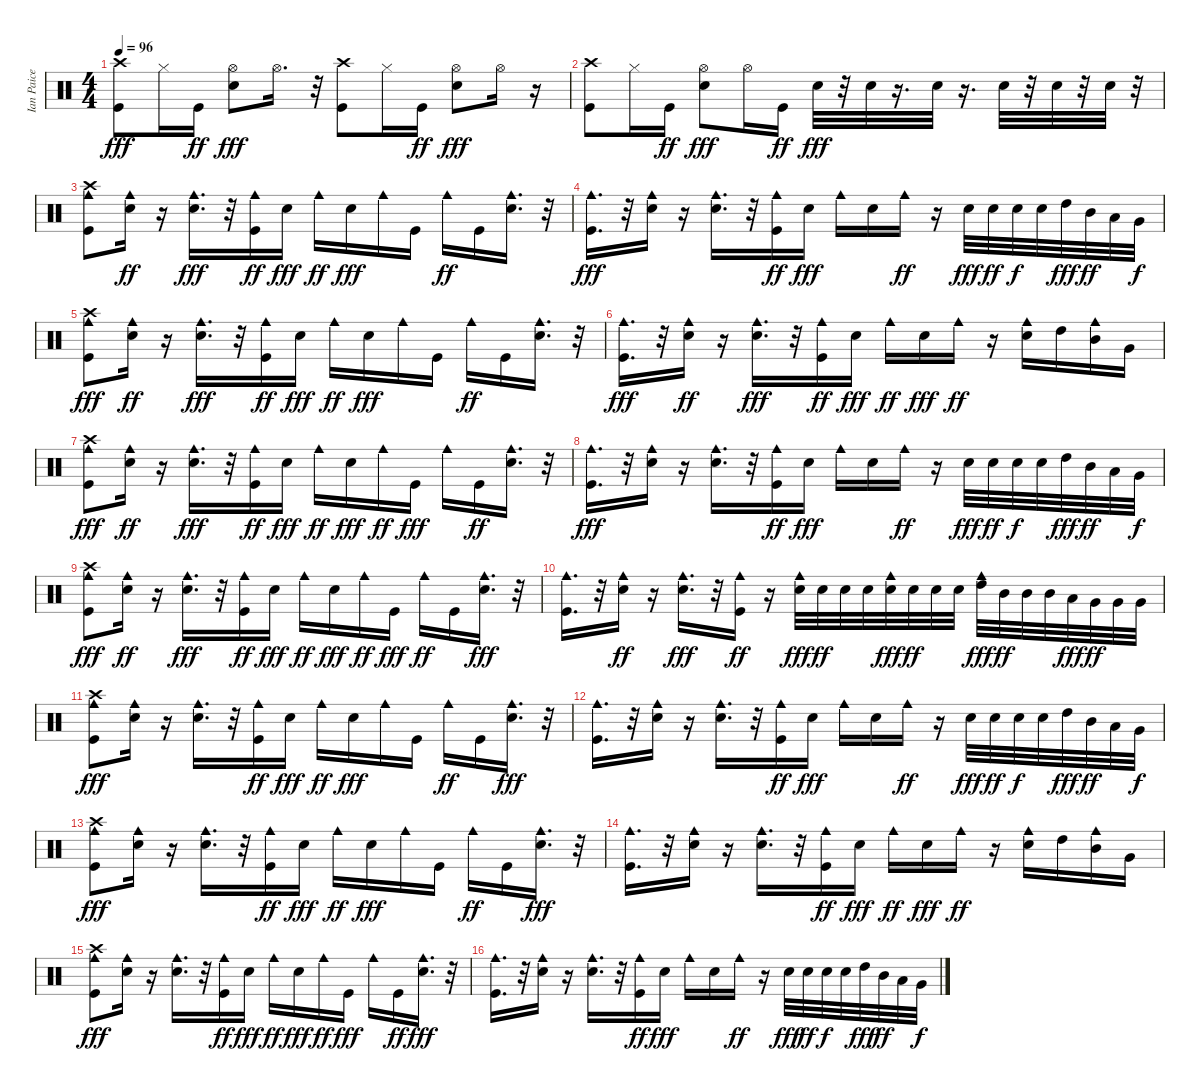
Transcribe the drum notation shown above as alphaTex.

\track ("Ian Paice" "Ian Paice") {instrument percussion}
\staff {score}
\articulation defaults
\ts (4 4)
\tempo 96
\clef neutral
\ks c
("Kick (hit)" "Crash high (hit)").8{dy fff} "Hi-Hat (closed)".16 "Kick (hit)".16{dy ff} ("Snare (hit) 2" "Hi-Hat (open)").8{dy fff} "Hi-Hat (open)".16{d} r.32 ("Kick (hit)" "Crash high (hit)").8 "Hi-Hat (closed)".16 "Kick (hit)".16{dy ff} ("Snare (hit) 2" "Hi-Hat (open)").8{dy fff} "Hi-Hat (open)".16 r.16 |
("Crash high (hit)" "Kick (hit)").8 "Hi-Hat (closed)".16 "Kick (hit)".16{dy ff} ("Hi-Hat (open)" "Snare (hit) 2").8{dy fff} "Hi-Hat (open)".16 "Kick (hit)".16{dy ff} "Snare (hit) 2".32{dy fff} r.32 "Snare (hit) 2".32 r.16{d} "Snare (hit) 2".32 r.16{d} "Snare (hit) 2".32 r.32 "Snare (hit) 2".32 r.32 "Snare (hit) 2".32 r.32 |
("Cowbell medium (hit)" "Kick (hit)" "Crash high (hit)").8 ("Snare (hit) 2" "Cowbell medium (hit)").16{dy ff} r.16 ("Cowbell medium (hit)" "Snare (hit) 2").16{d dy fff} r.32 ("Kick (hit)" "Cowbell medium (hit)").16{dy ff} "Snare (hit) 2".16{dy fff} "Cowbell medium (hit)".16{dy ff} "Snare (hit) 2".16{dy fff} "Cowbell medium (hit)".16 "Kick (hit)".16 "Cowbell medium (hit)".16{dy ff} "Kick (hit)".16 ("Snare (hit) 2" "Cowbell medium (hit)").16{d} r.32 |
("Cowbell medium (hit)" "Kick (hit)").16{d dy fff} r.32 ("Snare (hit) 2" "Cowbell medium (hit)").16 r.16 ("Cowbell medium (hit)" "Snare (hit) 2").16{d} r.32 ("Kick (hit)" "Cowbell medium (hit)").16{dy ff} "Snare (hit) 2".16{dy fff} "Cowbell medium (hit)".16 "Snare (hit) 2".16 "Cowbell medium (hit)".16{dy ff} r.16 "Snare (hit) 2".32{dy fff} "Snare (hit) 2".32{dy ff} "Snare (hit) 2".32{dy f} "Snare (hit) 2".32 "High Tom (hit)".32{dy fff} "Mid Tom (hit)".32{dy ff} "Low Tom (hit)".32 "Very Low Tom (hit)".32{dy f} |
("Cowbell medium (hit)" "Kick (hit)" "Crash high (hit)").8{dy fff} ("Snare (hit) 2" "Cowbell medium (hit)").16{dy ff} r.16 ("Cowbell medium (hit)" "Snare (hit) 2").16{d dy fff} r.32 ("Kick (hit)" "Cowbell medium (hit)").16{dy ff} "Snare (hit) 2".16{dy fff} "Cowbell medium (hit)".16{dy ff} "Snare (hit) 2".16{dy fff} "Cowbell medium (hit)".16 "Kick (hit)".16 "Cowbell medium (hit)".16{dy ff} "Kick (hit)".16 ("Snare (hit) 2" "Cowbell medium (hit)").16{d} r.32 |
("Cowbell medium (hit)" "Kick (hit)").16{d dy fff} r.32 ("Snare (hit) 2" "Cowbell medium (hit)").16{dy ff} r.16 ("Cowbell medium (hit)" "Snare (hit) 2").16{d dy fff} r.32 ("Kick (hit)" "Cowbell medium (hit)").16{dy ff} "Snare (hit) 2".16{dy fff} "Cowbell medium (hit)".16{dy ff} "Snare (hit) 2".16{dy fff} "Cowbell medium (hit)".16{dy ff} r.16 ("Cowbell medium (hit)" "Snare (hit) 2").16 "High Tom (hit)".16 ("Cowbell medium (hit)" "Mid Tom (hit)").16 "Very Low Tom (hit)".16 |
("Cowbell medium (hit)" "Kick (hit)" "Crash high (hit)").8{dy fff} ("Snare (hit) 2" "Cowbell medium (hit)").16{dy ff} r.16 ("Cowbell medium (hit)" "Snare (hit) 2").16{d dy fff} r.32 ("Kick (hit)" "Cowbell medium (hit)").16{dy ff} "Snare (hit) 2".16{dy fff} "Cowbell medium (hit)".16{dy ff} "Snare (hit) 2".16{dy fff} "Cowbell medium (hit)".16{dy ff} "Kick (hit)".16{dy fff} "Cowbell medium (hit)".16 "Kick (hit)".16{dy ff} ("Snare (hit) 2" "Cowbell medium (hit)").16{d} r.32 |
("Cowbell medium (hit)" "Kick (hit)").16{d dy fff} r.32 ("Snare (hit) 2" "Cowbell medium (hit)").16 r.16 ("Cowbell medium (hit)" "Snare (hit) 2").16{d} r.32 ("Kick (hit)" "Cowbell medium (hit)").16{dy ff} "Snare (hit) 2".16{dy fff} "Cowbell medium (hit)".16 "Snare (hit) 2".16 "Cowbell medium (hit)".16{dy ff} r.16 "Snare (hit) 2".32{dy fff} "Snare (hit) 2".32{dy ff} "Snare (hit) 2".32{dy f} "Snare (hit) 2".32 "High Tom (hit)".32{dy fff} "Mid Tom (hit)".32{dy ff} "Low Tom (hit)".32 "Very Low Tom (hit)".32{dy f} |
("Cowbell medium (hit)" "Kick (hit)" "Crash high (hit)").8{dy fff} ("Snare (hit) 2" "Cowbell medium (hit)").16{dy ff} r.16 ("Cowbell medium (hit)" "Snare (hit) 2").16{d dy fff} r.32 ("Kick (hit)" "Cowbell medium (hit)").16{dy ff} "Snare (hit) 2".16{dy fff} "Cowbell medium (hit)".16{dy ff} "Snare (hit) 2".16{dy fff} "Cowbell medium (hit)".16{dy ff} "Kick (hit)".16{dy fff} "Cowbell medium (hit)".16{dy ff} "Kick (hit)".16 ("Snare (hit) 2" "Cowbell medium (hit)").16{d dy fff} r.32 |
("Cowbell medium (hit)" "Kick (hit)").16{d} r.32 ("Snare (hit) 2" "Cowbell medium (hit)").16{dy ff} r.16 ("Cowbell medium (hit)" "Snare (hit) 2").16{d dy fff} r.32 ("Kick (hit)" "Cowbell medium (hit)").16{dy ff} r.16 ("Cowbell medium (hit)" "Snare (hit) 2").32{dy fff} "Snare (hit) 2".32{dy ff} "Snare (hit) 2".32 "Snare (hit) 2".32 ("Cowbell medium (hit)" "Snare (hit) 2").32{dy fff} "Snare (hit) 2".32{dy ff} "Snare (hit) 2".32 "Snare (hit) 2".32 ("Cowbell medium (hit)" "High Tom (hit)").32{dy fff} "Mid Tom (hit)".32{dy ff} "Mid Tom (hit)".32 "Mid Tom (hit)".32 "Low Tom (hit)".32{dy fff} "Very Low Tom (hit)".32{dy ff} "Very Low Tom (hit)".32 "Very Low Tom (hit)".32 |
("Cowbell medium (hit)" "Kick (hit)" "Crash high (hit)").8{dy fff} ("Cowbell medium (hit)" "Snare (hit) 2").16 r.16 ("Cowbell medium (hit)" "Snare (hit) 2").16{d} r.32 ("Cowbell medium (hit)" "Kick (hit)").16{dy ff} "Snare (hit) 2".16{dy fff} "Cowbell medium (hit)".16{dy ff} "Snare (hit) 2".16{dy fff} "Cowbell medium (hit)".16 "Kick (hit)".16 "Cowbell medium (hit)".16{dy ff} "Kick (hit)".16 ("Cowbell medium (hit)" "Snare (hit) 2").16{d dy fff} r.32 |
("Cowbell medium (hit)" "Kick (hit)").16{d} r.32 ("Cowbell medium (hit)" "Snare (hit) 2").16 r.16 ("Cowbell medium (hit)" "Snare (hit) 2").16{d} r.32 ("Cowbell medium (hit)" "Kick (hit)").16{dy ff} "Snare (hit) 2".16{dy fff} "Cowbell medium (hit)".16 "Snare (hit) 2".16 "Cowbell medium (hit)".16{dy ff} r.16 "Snare (hit) 2".32{dy fff} "Snare (hit) 2".32{dy ff} "Snare (hit) 2".32{dy f} "Snare (hit) 2".32 "High Tom (hit)".32{dy fff} "Mid Tom (hit)".32{dy ff} "Low Tom (hit)".32 "Very Low Tom (hit)".32{dy f} |
("Cowbell medium (hit)" "Kick (hit)" "Crash high (hit)").8{dy fff} ("Cowbell medium (hit)" "Snare (hit) 2").16 r.16 ("Cowbell medium (hit)" "Snare (hit) 2").16{d} r.32 ("Cowbell medium (hit)" "Kick (hit)").16{dy ff} "Snare (hit) 2".16{dy fff} "Cowbell medium (hit)".16{dy ff} "Snare (hit) 2".16{dy fff} "Cowbell medium (hit)".16 "Kick (hit)".16 "Cowbell medium (hit)".16{dy ff} "Kick (hit)".16 ("Cowbell medium (hit)" "Snare (hit) 2").16{d dy fff} r.32 |
("Cowbell medium (hit)" "Kick (hit)").16{d} r.32 ("Cowbell medium (hit)" "Snare (hit) 2").16 r.16 ("Cowbell medium (hit)" "Snare (hit) 2").16{d} r.32 ("Cowbell medium (hit)" "Kick (hit)").16{dy ff} "Snare (hit) 2".16{dy fff} "Cowbell medium (hit)".16{dy ff} "Snare (hit) 2".16{dy fff} "Cowbell medium (hit)".16{dy ff} r.16 ("Cowbell medium (hit)" "Snare (hit) 2").16 "High Tom (hit)".16 ("Cowbell medium (hit)" "Mid Tom (hit)").16 "Very Low Tom (hit)".16 |
("Cowbell medium (hit)" "Kick (hit)" "Crash high (hit)").8{dy fff} ("Cowbell medium (hit)" "Snare (hit) 2").16 r.16 ("Cowbell medium (hit)" "Snare (hit) 2").16{d} r.32 ("Cowbell medium (hit)" "Kick (hit)").16{dy ff} "Snare (hit) 2".16{dy fff} "Cowbell medium (hit)".16{dy ff} "Snare (hit) 2".16{dy fff} "Cowbell medium (hit)".16{dy ff} "Kick (hit)".16{dy fff} "Cowbell medium (hit)".16 "Kick (hit)".16{dy ff} ("Cowbell medium (hit)" "Snare (hit) 2").16{d dy fff} r.32 |
("Cowbell medium (hit)" "Kick (hit)").16{d} r.32 ("Cowbell medium (hit)" "Snare (hit) 2").16 r.16 ("Cowbell medium (hit)" "Snare (hit) 2").16{d} r.32 ("Cowbell medium (hit)" "Kick (hit)").16{dy ff} "Snare (hit) 2".16{dy fff} "Cowbell medium (hit)".16 "Snare (hit) 2".16 "Cowbell medium (hit)".16{dy ff} r.16 "Snare (hit) 2".32{dy fff} "Snare (hit) 2".32{dy ff} "Snare (hit) 2".32{dy f} "Snare (hit) 2".32 "High Tom (hit)".32{dy fff} "Mid Tom (hit)".32{dy ff} "Low Tom (hit)".32 "Very Low Tom (hit)".32{dy f}
